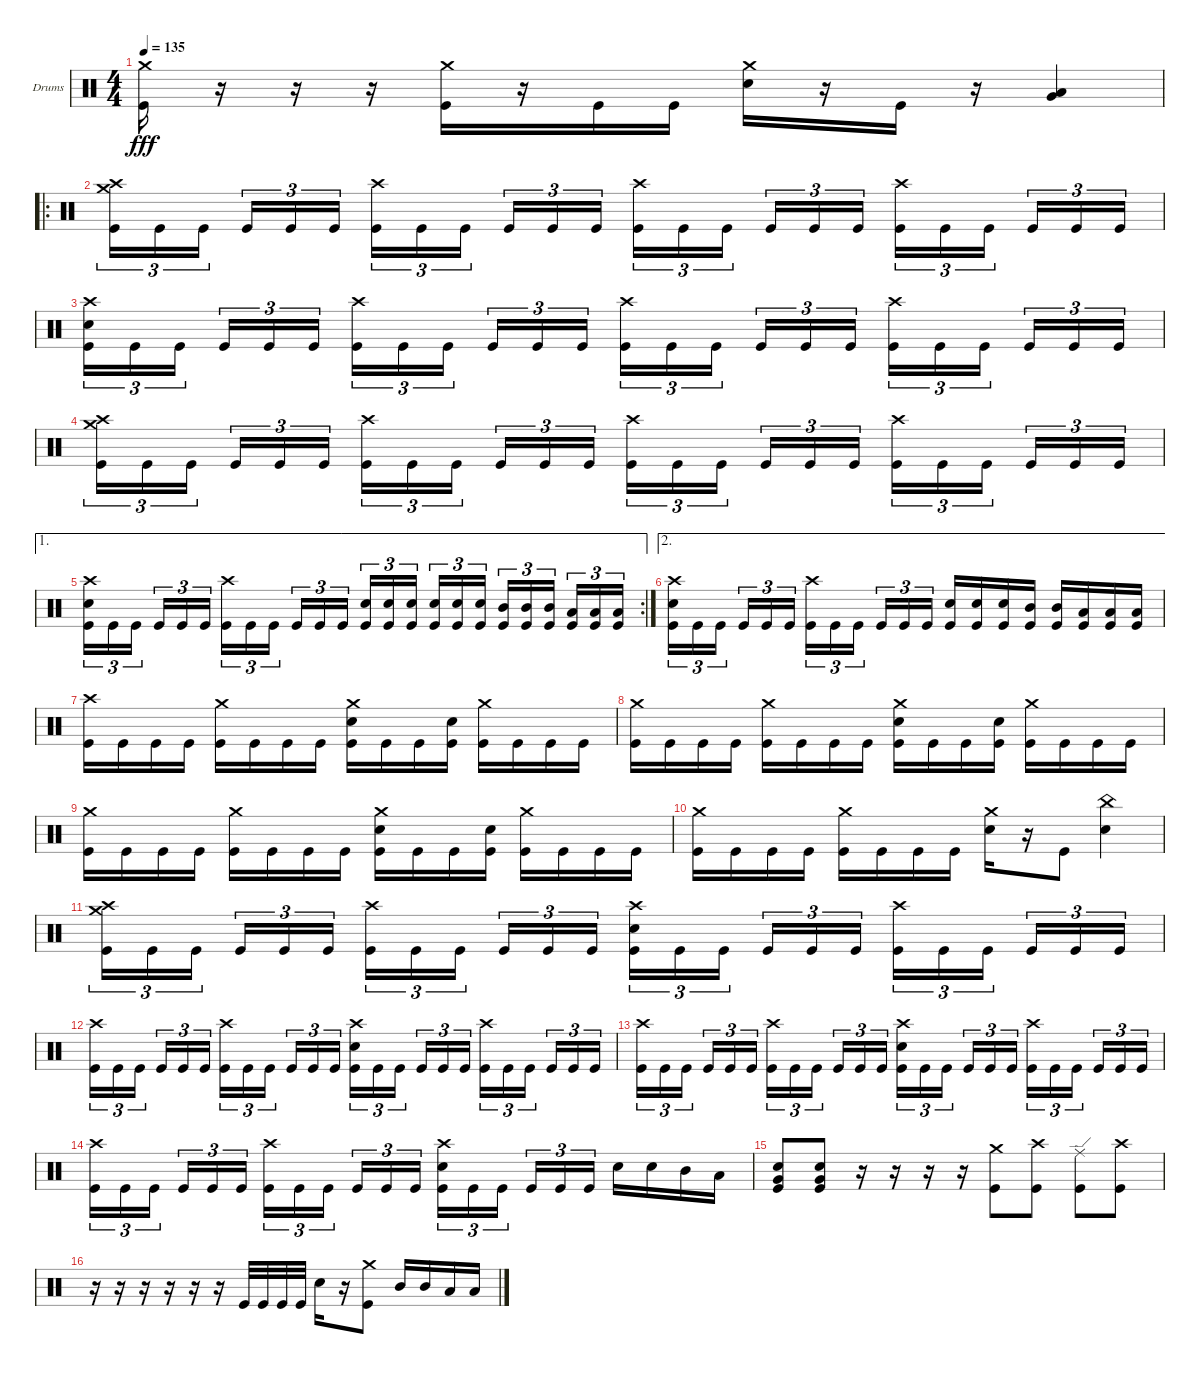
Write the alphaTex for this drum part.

\bracketExtendMode groupsimilarinstruments
\firstSystemTrackNameOrientation horizontal
\otherSystemsTrackNameOrientation horizontal
\track ("Drumkit" "Drums") {instrument percussion}
\staff {score}
\articulation defaults
\ts (4 4)
\tempo 135
\clef neutral
\ks c
("Crash medium (hit)" "Kick (hit)").16{dy fff} r.16 r.16 r.16 ("Crash medium (hit)" "Kick (hit)").16 r.16 "Kick (hit)".16 "Kick (hit)".16 ("Snare (hit) 2" "Crash medium (hit)").16 r.16 "Kick (hit)".16 r.16 ("Very Low Tom (hit)" "Low Tom (hit)").4 |
\ro
("Kick (hit)" "Crash medium (hit)" "Crash high (hit)").16{tu (3 2)} "Kick (hit)".16{tu (3 2)} "Kick (hit)".16{tu (3 2)} "Kick (hit)".16{tu (3 2)} "Kick (hit)".16{tu (3 2)} "Kick (hit)".16{tu (3 2)} ("Kick (hit)" "Crash high (hit)").16{tu (3 2)} "Kick (hit)".16{tu (3 2)} "Kick (hit)".16{tu (3 2)} "Kick (hit)".16{tu (3 2)} "Kick (hit)".16{tu (3 2)} "Kick (hit)".16{tu (3 2)} ("Kick (hit)" "Crash high (hit)").16{tu (3 2)} "Kick (hit)".16{tu (3 2)} "Kick (hit)".16{tu (3 2)} "Kick (hit)".16{tu (3 2)} "Kick (hit)".16{tu (3 2)} "Kick (hit)".16{tu (3 2)} ("Kick (hit)" "Crash high (hit)").16{tu (3 2)} "Kick (hit)".16{tu (3 2)} "Kick (hit)".16{tu (3 2)} "Kick (hit)".16{tu (3 2)} "Kick (hit)".16{tu (3 2)} "Kick (hit)".16{tu (3 2)} |
("Kick (hit)" "Crash high (hit)" "Snare (hit) 2").16{tu (3 2)} "Kick (hit)".16{tu (3 2)} "Kick (hit)".16{tu (3 2)} "Kick (hit)".16{tu (3 2)} "Kick (hit)".16{tu (3 2)} "Kick (hit)".16{tu (3 2)} ("Kick (hit)" "Crash high (hit)").16{tu (3 2)} "Kick (hit)".16{tu (3 2)} "Kick (hit)".16{tu (3 2)} "Kick (hit)".16{tu (3 2)} "Kick (hit)".16{tu (3 2)} "Kick (hit)".16{tu (3 2)} ("Kick (hit)" "Crash high (hit)").16{tu (3 2)} "Kick (hit)".16{tu (3 2)} "Kick (hit)".16{tu (3 2)} "Kick (hit)".16{tu (3 2)} "Kick (hit)".16{tu (3 2)} "Kick (hit)".16{tu (3 2)} ("Kick (hit)" "Crash high (hit)").16{tu (3 2)} "Kick (hit)".16{tu (3 2)} "Kick (hit)".16{tu (3 2)} "Kick (hit)".16{tu (3 2)} "Kick (hit)".16{tu (3 2)} "Kick (hit)".16{tu (3 2)} |
("Kick (hit)" "Crash medium (hit)" "Crash high (hit)").16{tu (3 2)} "Kick (hit)".16{tu (3 2)} "Kick (hit)".16{tu (3 2)} "Kick (hit)".16{tu (3 2)} "Kick (hit)".16{tu (3 2)} "Kick (hit)".16{tu (3 2)} ("Kick (hit)" "Crash high (hit)").16{tu (3 2)} "Kick (hit)".16{tu (3 2)} "Kick (hit)".16{tu (3 2)} "Kick (hit)".16{tu (3 2)} "Kick (hit)".16{tu (3 2)} "Kick (hit)".16{tu (3 2)} ("Kick (hit)" "Crash high (hit)").16{tu (3 2)} "Kick (hit)".16{tu (3 2)} "Kick (hit)".16{tu (3 2)} "Kick (hit)".16{tu (3 2)} "Kick (hit)".16{tu (3 2)} "Kick (hit)".16{tu (3 2)} ("Kick (hit)" "Crash high (hit)").16{tu (3 2)} "Kick (hit)".16{tu (3 2)} "Kick (hit)".16{tu (3 2)} "Kick (hit)".16{tu (3 2)} "Kick (hit)".16{tu (3 2)} "Kick (hit)".16{tu (3 2)} |
\ae 1
\rc 2
("Kick (hit)" "Crash high (hit)" "Snare (hit) 2").16{tu (3 2)} "Kick (hit)".16{tu (3 2)} "Kick (hit)".16{tu (3 2)} "Kick (hit)".16{tu (3 2)} "Kick (hit)".16{tu (3 2)} "Kick (hit)".16{tu (3 2)} ("Kick (hit)" "Crash high (hit)").16{tu (3 2)} "Kick (hit)".16{tu (3 2)} "Kick (hit)".16{tu (3 2)} "Kick (hit)".16{tu (3 2)} "Kick (hit)".16{tu (3 2)} "Kick (hit)".16{tu (3 2)} ("Kick (hit)" "Snare (hit) 2").16{tu (3 2)} ("Kick (hit)" "Snare (hit) 2").16{tu (3 2)} ("Kick (hit)" "Snare (hit) 2").16{tu (3 2)} ("Kick (hit)" "Snare (hit) 2").16{tu (3 2)} ("Kick (hit)" "Snare (hit) 2").16{tu (3 2)} ("Kick (hit)" "Snare (hit) 2").16{tu (3 2)} ("Kick (hit)" "Mid Tom (hit)").16{tu (3 2)} ("Kick (hit)" "Mid Tom (hit)").16{tu (3 2)} ("Kick (hit)" "Mid Tom (hit)").16{tu (3 2)} ("Kick (hit)" "Low Tom (hit)").16{tu (3 2)} ("Kick (hit)" "Low Tom (hit)").16{tu (3 2)} ("Kick (hit)" "Low Tom (hit)").16{tu (3 2)} |
\ae 2
("Kick (hit)" "Crash high (hit)" "Snare (hit) 2").16{tu (3 2)} "Kick (hit)".16{tu (3 2)} "Kick (hit)".16{tu (3 2)} "Kick (hit)".16{tu (3 2)} "Kick (hit)".16{tu (3 2)} "Kick (hit)".16{tu (3 2)} ("Kick (hit)" "Crash high (hit)").16{tu (3 2)} "Kick (hit)".16{tu (3 2)} "Kick (hit)".16{tu (3 2)} "Kick (hit)".16{tu (3 2)} "Kick (hit)".16{tu (3 2)} "Kick (hit)".16{tu (3 2)} ("Kick (hit)" "Snare (hit) 2").16 ("Kick (hit)" "Snare (hit) 2").16 ("Kick (hit)" "Snare (hit) 2").16 ("Kick (hit)" "Mid Tom (hit)").16 ("Kick (hit)" "Mid Tom (hit)").16 ("Kick (hit)" "Low Tom (hit)").16 ("Kick (hit)" "Low Tom (hit)").16 ("Kick (hit)" "Low Tom (hit)").16 |
("Kick (hit)" "Crash high (hit)").16 "Kick (hit)".16 "Kick (hit)".16 "Kick (hit)".16 ("Crash medium (hit)" "Kick (hit)").16 "Kick (hit)".16 "Kick (hit)".16 "Kick (hit)".16 ("Snare (hit) 2" "Crash medium (hit)" "Kick (hit)").16 "Kick (hit)".16 "Kick (hit)".16 ("Snare (hit) 2" "Kick (hit)").16 ("Crash medium (hit)" "Kick (hit)").16 "Kick (hit)".16 "Kick (hit)".16 "Kick (hit)".16 |
("Kick (hit)" "Crash medium (hit)").16 "Kick (hit)".16 "Kick (hit)".16 "Kick (hit)".16 ("Kick (hit)" "Crash medium (hit)").16 "Kick (hit)".16 "Kick (hit)".16 "Kick (hit)".16 ("Snare (hit) 2" "Crash medium (hit)" "Kick (hit)").16 "Kick (hit)".16 "Kick (hit)".16 ("Snare (hit) 2" "Kick (hit)").16 ("Crash medium (hit)" "Kick (hit)").16 "Kick (hit)".16 "Kick (hit)".16 "Kick (hit)".16 |
("Kick (hit)" "Crash medium (hit)").16 "Kick (hit)".16 "Kick (hit)".16 "Kick (hit)".16 ("Kick (hit)" "Crash medium (hit)").16 "Kick (hit)".16 "Kick (hit)".16 "Kick (hit)".16 ("Snare (hit) 2" "Crash medium (hit)" "Kick (hit)").16 "Kick (hit)".16 "Kick (hit)".16 ("Snare (hit) 2" "Kick (hit)").16 ("Crash medium (hit)" "Kick (hit)").16 "Kick (hit)".16 "Kick (hit)".16 "Kick (hit)".16 |
("Kick (hit)" "Crash medium (hit)").16 "Kick (hit)".16 "Kick (hit)".16 "Kick (hit)".16 ("Kick (hit)" "Crash medium (hit)").16 "Kick (hit)".16 "Kick (hit)".16 "Kick (hit)".16 ("Snare (hit) 2" "Crash medium (hit)").16 r.16 "Kick (hit)".8 ("Snare (hit) 2" "China (hit)").4 |
("Kick (hit)" "Crash medium (hit)" "Crash high (hit)").16{tu (3 2)} "Kick (hit)".16{tu (3 2)} "Kick (hit)".16{tu (3 2)} "Kick (hit)".16{tu (3 2)} "Kick (hit)".16{tu (3 2)} "Kick (hit)".16{tu (3 2)} ("Kick (hit)" "Crash high (hit)").16{tu (3 2)} "Kick (hit)".16{tu (3 2)} "Kick (hit)".16{tu (3 2)} "Kick (hit)".16{tu (3 2)} "Kick (hit)".16{tu (3 2)} "Kick (hit)".16{tu (3 2)} ("Kick (hit)" "Crash high (hit)" "Snare (hit) 2").16{tu (3 2)} "Kick (hit)".16{tu (3 2)} "Kick (hit)".16{tu (3 2)} "Kick (hit)".16{tu (3 2)} "Kick (hit)".16{tu (3 2)} "Kick (hit)".16{tu (3 2)} ("Kick (hit)" "Crash high (hit)").16{tu (3 2)} "Kick (hit)".16{tu (3 2)} "Kick (hit)".16{tu (3 2)} "Kick (hit)".16{tu (3 2)} "Kick (hit)".16{tu (3 2)} "Kick (hit)".16{tu (3 2)} |
("Kick (hit)" "Crash high (hit)").16{tu (3 2)} "Kick (hit)".16{tu (3 2)} "Kick (hit)".16{tu (3 2)} "Kick (hit)".16{tu (3 2)} "Kick (hit)".16{tu (3 2)} "Kick (hit)".16{tu (3 2)} ("Kick (hit)" "Crash high (hit)").16{tu (3 2)} "Kick (hit)".16{tu (3 2)} "Kick (hit)".16{tu (3 2)} "Kick (hit)".16{tu (3 2)} "Kick (hit)".16{tu (3 2)} "Kick (hit)".16{tu (3 2)} ("Kick (hit)" "Crash high (hit)" "Snare (hit) 2").16{tu (3 2)} "Kick (hit)".16{tu (3 2)} "Kick (hit)".16{tu (3 2)} "Kick (hit)".16{tu (3 2)} "Kick (hit)".16{tu (3 2)} "Kick (hit)".16{tu (3 2)} ("Kick (hit)" "Crash high (hit)").16{tu (3 2)} "Kick (hit)".16{tu (3 2)} "Kick (hit)".16{tu (3 2)} "Kick (hit)".16{tu (3 2)} "Kick (hit)".16{tu (3 2)} "Kick (hit)".16{tu (3 2)} |
("Kick (hit)" "Crash high (hit)").16{tu (3 2)} "Kick (hit)".16{tu (3 2)} "Kick (hit)".16{tu (3 2)} "Kick (hit)".16{tu (3 2)} "Kick (hit)".16{tu (3 2)} "Kick (hit)".16{tu (3 2)} ("Kick (hit)" "Crash high (hit)").16{tu (3 2)} "Kick (hit)".16{tu (3 2)} "Kick (hit)".16{tu (3 2)} "Kick (hit)".16{tu (3 2)} "Kick (hit)".16{tu (3 2)} "Kick (hit)".16{tu (3 2)} ("Kick (hit)" "Crash high (hit)" "Snare (hit) 2").16{tu (3 2)} "Kick (hit)".16{tu (3 2)} "Kick (hit)".16{tu (3 2)} "Kick (hit)".16{tu (3 2)} "Kick (hit)".16{tu (3 2)} "Kick (hit)".16{tu (3 2)} ("Kick (hit)" "Crash high (hit)").16{tu (3 2)} "Kick (hit)".16{tu (3 2)} "Kick (hit)".16{tu (3 2)} "Kick (hit)".16{tu (3 2)} "Kick (hit)".16{tu (3 2)} "Kick (hit)".16{tu (3 2)} |
("Kick (hit)" "Crash high (hit)").16{tu (3 2)} "Kick (hit)".16{tu (3 2)} "Kick (hit)".16{tu (3 2)} "Kick (hit)".16{tu (3 2)} "Kick (hit)".16{tu (3 2)} "Kick (hit)".16{tu (3 2)} ("Kick (hit)" "Crash high (hit)").16{tu (3 2)} "Kick (hit)".16{tu (3 2)} "Kick (hit)".16{tu (3 2)} "Kick (hit)".16{tu (3 2)} "Kick (hit)".16{tu (3 2)} "Kick (hit)".16{tu (3 2)} ("Kick (hit)" "Crash high (hit)" "Snare (hit) 2").16{tu (3 2)} "Kick (hit)".16{tu (3 2)} "Kick (hit)".16{tu (3 2)} "Kick (hit)".16{tu (3 2)} "Kick (hit)".16{tu (3 2)} "Kick (hit)".16{tu (3 2)} "Snare (hit) 2".16 "Snare (hit) 2".16 "Mid Tom (hit)".16 "Low Tom (hit)".16 |
("Kick (hit)" "Very Low Tom (hit)" "Snare (hit) 2").8 ("Kick (hit)" "Very Low Tom (hit)" "Snare (hit) 2").8 r.16 r.16 r.16 r.16 ("Kick (hit)" "Crash medium (hit)").8 ("Kick (hit)" "Crash high (hit)").8 ("Kick (hit)" "Ride (edge)").8 ("Kick (hit)" "Crash high (hit)").8 |
r.16 r.16 r.16 r.16 r.16 r.16 "Kick (hit)".32 "Kick (hit)".32 "Kick (hit)".32 "Kick (hit)".32 "Snare (hit) 2".16 r.16 ("Kick (hit)" "Crash medium (hit)").8 "Mid Tom (hit)".16 "Mid Tom (hit)".16 "Low Tom (hit)".16 "Low Tom (hit)".16
